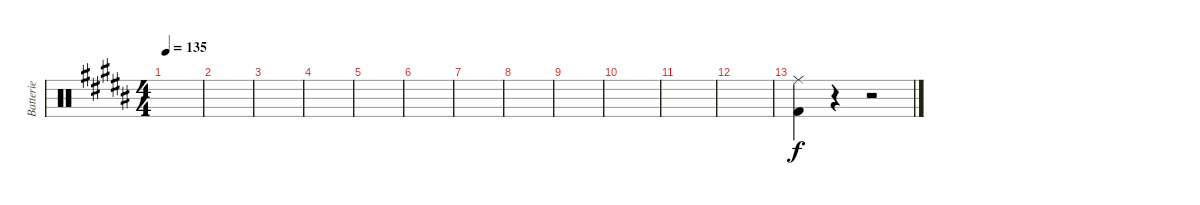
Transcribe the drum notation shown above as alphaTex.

\track ("Batterie" "Batterie") {instrument percussion}
\staff {score}
\articulation defaults
\ts (4 4)
\tempo 135
\clef neutral
\ks b
|
|
|
|
|
|
|
|
|
|
|
|
("Ride (middle)" "Kick (hit) 2").4 r.4 r.2
